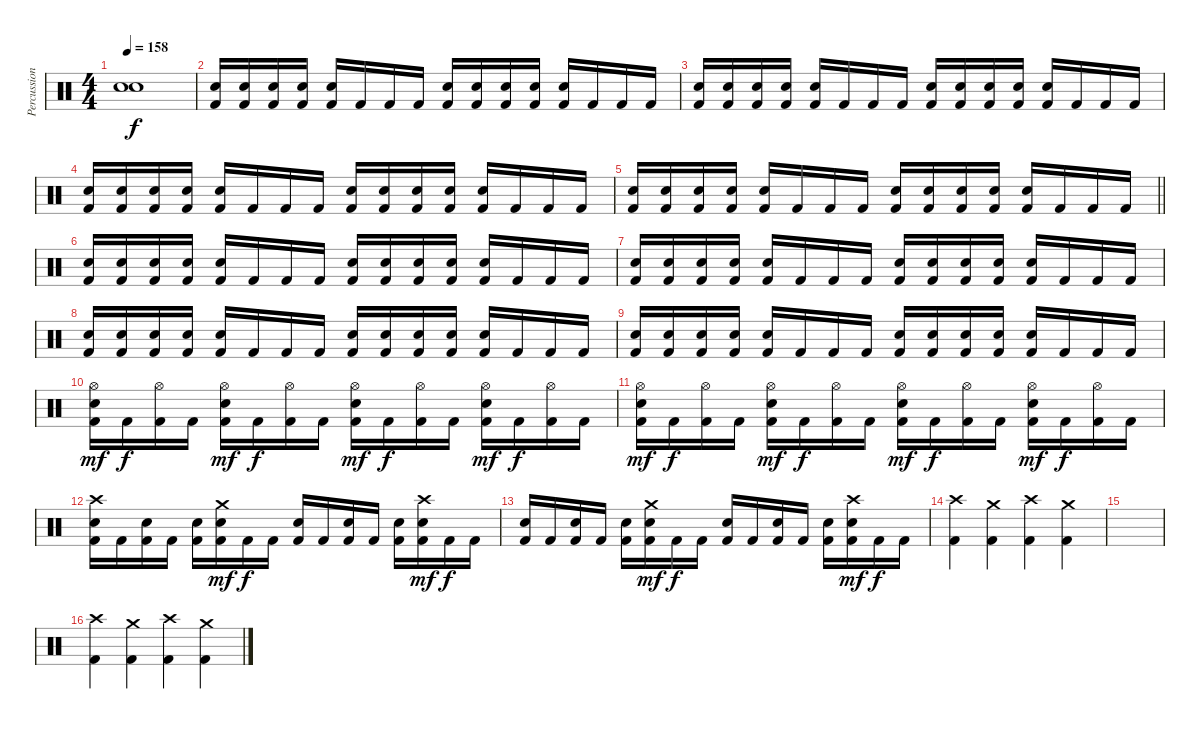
\track ("Percussion" "Percussion") {instrument percussion}
\staff {score}
\articulation defaults
\ts (4 4)
\tempo 158
\clef neutral
\ks c
("Snare (hit)"{t} "Snare (hit)"{t}).1{dy f} |
("Snare (hit) 2" "Kick (hit) 2").16 ("Snare (hit) 2" "Kick (hit) 2").16 ("Snare (hit) 2" "Kick (hit) 2").16 ("Snare (hit) 2" "Kick (hit) 2").16 ("Snare (hit) 2" "Kick (hit) 2").16 "Kick (hit) 2".16 "Kick (hit) 2".16 "Kick (hit) 2".16 ("Snare (hit) 2" "Kick (hit) 2").16 ("Snare (hit) 2" "Kick (hit) 2").16 ("Snare (hit) 2" "Kick (hit) 2").16 ("Snare (hit) 2" "Kick (hit) 2").16 ("Snare (hit) 2" "Kick (hit) 2").16 "Kick (hit) 2".16 "Kick (hit) 2".16 "Kick (hit) 2".16 |
("Snare (hit) 2" "Kick (hit) 2").16 ("Snare (hit) 2" "Kick (hit) 2").16 ("Snare (hit) 2" "Kick (hit) 2").16 ("Snare (hit) 2" "Kick (hit) 2").16 ("Snare (hit) 2" "Kick (hit) 2").16 "Kick (hit) 2".16 "Kick (hit) 2".16 "Kick (hit) 2".16 ("Snare (hit) 2" "Kick (hit) 2").16 ("Snare (hit) 2" "Kick (hit) 2").16 ("Snare (hit) 2" "Kick (hit) 2").16 ("Snare (hit) 2" "Kick (hit) 2").16 ("Snare (hit) 2" "Kick (hit) 2").16 "Kick (hit) 2".16 "Kick (hit) 2".16 "Kick (hit) 2".16 |
("Snare (hit) 2" "Kick (hit) 2").16 ("Snare (hit) 2" "Kick (hit) 2").16 ("Snare (hit) 2" "Kick (hit) 2").16 ("Snare (hit) 2" "Kick (hit) 2").16 ("Snare (hit) 2" "Kick (hit) 2").16 "Kick (hit) 2".16 "Kick (hit) 2".16 "Kick (hit) 2".16 ("Snare (hit) 2" "Kick (hit) 2").16 ("Snare (hit) 2" "Kick (hit) 2").16 ("Snare (hit) 2" "Kick (hit) 2").16 ("Snare (hit) 2" "Kick (hit) 2").16 ("Snare (hit) 2" "Kick (hit) 2").16 "Kick (hit) 2".16 "Kick (hit) 2".16 "Kick (hit) 2".16 |
\barLineRight lightlight
("Snare (hit) 2" "Kick (hit) 2").16 ("Snare (hit) 2" "Kick (hit) 2").16 ("Snare (hit) 2" "Kick (hit) 2").16 ("Snare (hit) 2" "Kick (hit) 2").16 ("Snare (hit) 2" "Kick (hit) 2").16 "Kick (hit) 2".16 "Kick (hit) 2".16 "Kick (hit) 2".16 ("Snare (hit) 2" "Kick (hit) 2").16 ("Snare (hit) 2" "Kick (hit) 2").16 ("Snare (hit) 2" "Kick (hit) 2").16 ("Snare (hit) 2" "Kick (hit) 2").16 ("Snare (hit) 2" "Kick (hit) 2").16 "Kick (hit) 2".16 "Kick (hit) 2".16 "Kick (hit) 2".16 |
("Snare (hit) 2" "Kick (hit) 2").16 ("Snare (hit) 2" "Kick (hit) 2").16 ("Snare (hit) 2" "Kick (hit) 2").16 ("Snare (hit) 2" "Kick (hit) 2").16 ("Snare (hit) 2" "Kick (hit) 2").16 "Kick (hit) 2".16 "Kick (hit) 2".16 "Kick (hit) 2".16 ("Snare (hit) 2" "Kick (hit) 2").16 ("Snare (hit) 2" "Kick (hit) 2").16 ("Snare (hit) 2" "Kick (hit) 2").16 ("Snare (hit) 2" "Kick (hit) 2").16 ("Snare (hit) 2" "Kick (hit) 2").16 "Kick (hit) 2".16 "Kick (hit) 2".16 "Kick (hit) 2".16 |
("Snare (hit) 2" "Kick (hit) 2").16 ("Snare (hit) 2" "Kick (hit) 2").16 ("Snare (hit) 2" "Kick (hit) 2").16 ("Snare (hit) 2" "Kick (hit) 2").16 ("Snare (hit) 2" "Kick (hit) 2").16 "Kick (hit) 2".16 "Kick (hit) 2".16 "Kick (hit) 2".16 ("Snare (hit) 2" "Kick (hit) 2").16 ("Snare (hit) 2" "Kick (hit) 2").16 ("Snare (hit) 2" "Kick (hit) 2").16 ("Snare (hit) 2" "Kick (hit) 2").16 ("Snare (hit) 2" "Kick (hit) 2").16 "Kick (hit) 2".16 "Kick (hit) 2".16 "Kick (hit) 2".16 |
("Snare (hit) 2" "Kick (hit) 2").16 ("Snare (hit) 2" "Kick (hit) 2").16 ("Snare (hit) 2" "Kick (hit) 2").16 ("Snare (hit) 2" "Kick (hit) 2").16 ("Snare (hit) 2" "Kick (hit) 2").16 "Kick (hit) 2".16 "Kick (hit) 2".16 "Kick (hit) 2".16 ("Snare (hit) 2" "Kick (hit) 2").16 ("Snare (hit) 2" "Kick (hit) 2").16 ("Snare (hit) 2" "Kick (hit) 2").16 ("Snare (hit) 2" "Kick (hit) 2").16 ("Snare (hit) 2" "Kick (hit) 2").16 "Kick (hit) 2".16 "Kick (hit) 2".16 "Kick (hit) 2".16 |
("Snare (hit) 2" "Kick (hit) 2").16 ("Snare (hit) 2" "Kick (hit) 2").16 ("Snare (hit) 2" "Kick (hit) 2").16 ("Snare (hit) 2" "Kick (hit) 2").16 ("Snare (hit) 2" "Kick (hit) 2").16 "Kick (hit) 2".16 "Kick (hit) 2".16 "Kick (hit) 2".16 ("Snare (hit) 2" "Kick (hit) 2").16 ("Snare (hit) 2" "Kick (hit) 2").16 ("Snare (hit) 2" "Kick (hit) 2").16 ("Snare (hit) 2" "Kick (hit) 2").16 ("Snare (hit) 2" "Kick (hit) 2").16 "Kick (hit) 2".16 "Kick (hit) 2".16 "Kick (hit) 2".16 |
("Hi-Hat (open)" "Snare (hit) 2" "Kick (hit) 2").16{dy mf} "Kick (hit) 2".16{dy f} ("Hi-Hat (open)" "Kick (hit) 2").16 "Kick (hit) 2".16 ("Hi-Hat (open)" "Snare (hit) 2" "Kick (hit) 2").16{dy mf} "Kick (hit) 2".16{dy f} ("Hi-Hat (open)" "Kick (hit) 2").16 "Kick (hit) 2".16 ("Hi-Hat (open)" "Snare (hit) 2" "Kick (hit) 2").16{dy mf} "Kick (hit) 2".16{dy f} ("Hi-Hat (open)" "Kick (hit) 2").16 "Kick (hit) 2".16 ("Hi-Hat (open)" "Snare (hit) 2" "Kick (hit) 2").16{dy mf} "Kick (hit) 2".16{dy f} ("Hi-Hat (open)" "Kick (hit) 2").16 "Kick (hit) 2".16 |
("Hi-Hat (open)" "Snare (hit) 2" "Kick (hit) 2").16{dy mf} "Kick (hit) 2".16{dy f} ("Hi-Hat (open)" "Kick (hit) 2").16 "Kick (hit) 2".16 ("Hi-Hat (open)" "Snare (hit) 2" "Kick (hit) 2").16{dy mf} "Kick (hit) 2".16{dy f} ("Hi-Hat (open)" "Kick (hit) 2").16 "Kick (hit) 2".16 ("Hi-Hat (open)" "Snare (hit) 2" "Kick (hit) 2").16{dy mf} "Kick (hit) 2".16{dy f} ("Hi-Hat (open)" "Kick (hit) 2").16 "Kick (hit) 2".16 ("Hi-Hat (open)" "Snare (hit) 2" "Kick (hit) 2").16{dy mf} "Kick (hit) 2".16{dy f} ("Hi-Hat (open)" "Kick (hit) 2").16 "Kick (hit) 2".16 |
("Crash high (hit)" "Snare (hit) 2" "Kick (hit) 2").16 "Kick (hit) 2".16 ("Snare (hit) 2" "Kick (hit) 2").16 "Kick (hit) 2".16 ("Snare (hit) 2" "Kick (hit) 2").16 ("Crash medium (hit)" "Snare (hit) 2" "Kick (hit) 2").16{dy mf} "Kick (hit) 2".16{dy f} "Kick (hit) 2".16 ("Snare (hit) 2" "Kick (hit) 2").16 "Kick (hit) 2".16 ("Snare (hit) 2" "Kick (hit) 2").16 "Kick (hit) 2".16 ("Snare (hit) 2" "Kick (hit) 2").16 ("Crash high (hit)" "Snare (hit) 2" "Kick (hit) 2").16{dy mf} "Kick (hit) 2".16{dy f} "Kick (hit) 2".16 |
("Snare (hit) 2" "Kick (hit) 2").16 "Kick (hit) 2".16 ("Snare (hit) 2" "Kick (hit) 2").16 "Kick (hit) 2".16 ("Snare (hit) 2" "Kick (hit) 2").16 ("Crash medium (hit)" "Snare (hit) 2" "Kick (hit) 2").16{dy mf} "Kick (hit) 2".16{dy f} "Kick (hit) 2".16 ("Snare (hit) 2" "Kick (hit) 2").16 "Kick (hit) 2".16 ("Snare (hit) 2" "Kick (hit) 2").16 "Kick (hit) 2".16 ("Snare (hit) 2" "Kick (hit) 2").16 ("Crash high (hit)" "Snare (hit) 2" "Kick (hit) 2").16{dy mf} "Kick (hit) 2".16{dy f} "Kick (hit) 2".16 |
("Crash high (hit)" "Kick (hit) 2").4 ("Crash medium (hit)" "Kick (hit) 2").4 ("Crash high (hit)" "Kick (hit) 2").4 ("Crash medium (hit)" "Kick (hit) 2").4 |
|
("Crash high (hit)" "Kick (hit) 2").4 ("Crash medium (hit)" "Kick (hit) 2").4 ("Crash high (hit)" "Kick (hit) 2").4 ("Crash medium (hit)" "Kick (hit) 2").4
